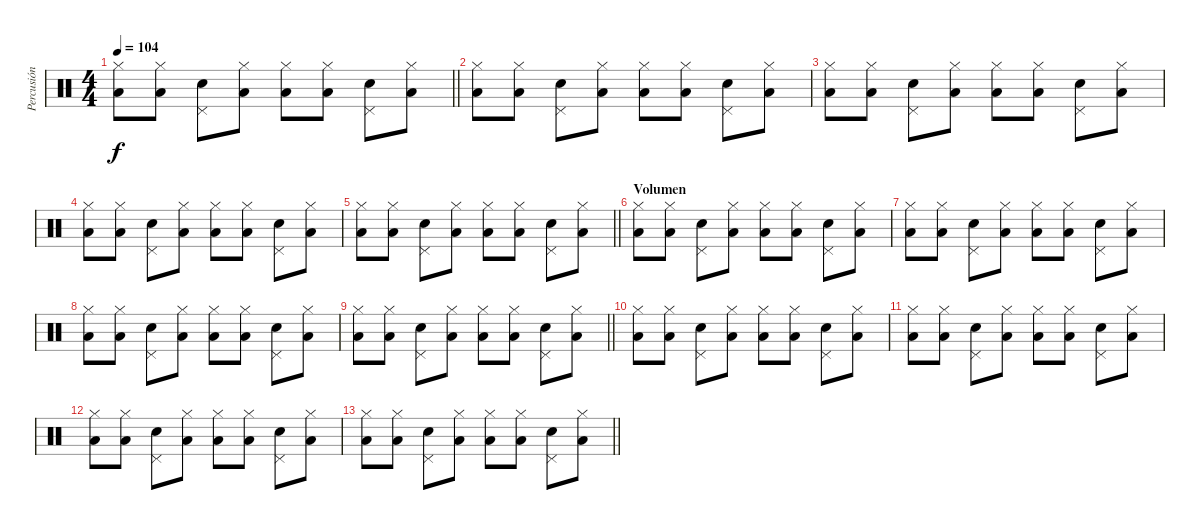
\track ("Percusión" "Percusión") {instrument percussion}
\staff {score}
\articulation defaults
\ts (4 4)
\tempo 104
\clef neutral
\barLineRight lightlight
\ks c
("Low Floor Tom (hit)" "Hi-Hat (closed)").8{dy f} ("Low Floor Tom (hit)" "Hi-Hat (closed)").8 ("Pedal Hi-Hat (hit)" "Snare (hit) 2").8 ("Low Floor Tom (hit)" "Hi-Hat (closed)").8 ("Low Floor Tom (hit)" "Hi-Hat (closed)").8 ("Low Floor Tom (hit)" "Hi-Hat (closed)").8 ("Pedal Hi-Hat (hit)" "Snare (hit) 2").8 ("Low Floor Tom (hit)" "Hi-Hat (closed)").8 |
("Low Floor Tom (hit)" "Hi-Hat (closed)").8 ("Low Floor Tom (hit)" "Hi-Hat (closed)").8 ("Pedal Hi-Hat (hit)" "Snare (hit) 2").8 ("Low Floor Tom (hit)" "Hi-Hat (closed)").8 ("Low Floor Tom (hit)" "Hi-Hat (closed)").8 ("Low Floor Tom (hit)" "Hi-Hat (closed)").8 ("Pedal Hi-Hat (hit)" "Snare (hit) 2").8 ("Low Floor Tom (hit)" "Hi-Hat (closed)").8 |
("Low Floor Tom (hit)" "Hi-Hat (closed)").8 ("Low Floor Tom (hit)" "Hi-Hat (closed)").8 ("Pedal Hi-Hat (hit)" "Snare (hit) 2").8 ("Low Floor Tom (hit)" "Hi-Hat (closed)").8 ("Low Floor Tom (hit)" "Hi-Hat (closed)").8 ("Low Floor Tom (hit)" "Hi-Hat (closed)").8 ("Pedal Hi-Hat (hit)" "Snare (hit) 2").8 ("Low Floor Tom (hit)" "Hi-Hat (closed)").8 |
("Low Floor Tom (hit)" "Hi-Hat (closed)").8 ("Low Floor Tom (hit)" "Hi-Hat (closed)").8 ("Pedal Hi-Hat (hit)" "Snare (hit) 2").8 ("Low Floor Tom (hit)" "Hi-Hat (closed)").8 ("Low Floor Tom (hit)" "Hi-Hat (closed)").8 ("Low Floor Tom (hit)" "Hi-Hat (closed)").8 ("Pedal Hi-Hat (hit)" "Snare (hit) 2").8 ("Low Floor Tom (hit)" "Hi-Hat (closed)").8 |
\barLineRight lightlight
("Low Floor Tom (hit)" "Hi-Hat (closed)").8 ("Low Floor Tom (hit)" "Hi-Hat (closed)").8 ("Pedal Hi-Hat (hit)" "Snare (hit) 2").8 ("Low Floor Tom (hit)" "Hi-Hat (closed)").8 ("Low Floor Tom (hit)" "Hi-Hat (closed)").8 ("Low Floor Tom (hit)" "Hi-Hat (closed)").8 ("Pedal Hi-Hat (hit)" "Snare (hit) 2").8 ("Low Floor Tom (hit)" "Hi-Hat (closed)").8 |
\section ("" "Volumen")
("Low Floor Tom (hit)" "Hi-Hat (closed)").8 ("Low Floor Tom (hit)" "Hi-Hat (closed)").8 ("Pedal Hi-Hat (hit)" "Snare (hit) 2").8 ("Low Floor Tom (hit)" "Hi-Hat (closed)").8 ("Low Floor Tom (hit)" "Hi-Hat (closed)").8 ("Low Floor Tom (hit)" "Hi-Hat (closed)").8 ("Pedal Hi-Hat (hit)" "Snare (hit) 2").8 ("Low Floor Tom (hit)" "Hi-Hat (closed)").8 |
("Low Floor Tom (hit)" "Hi-Hat (closed)").8 ("Low Floor Tom (hit)" "Hi-Hat (closed)").8 ("Pedal Hi-Hat (hit)" "Snare (hit) 2").8 ("Low Floor Tom (hit)" "Hi-Hat (closed)").8 ("Low Floor Tom (hit)" "Hi-Hat (closed)").8 ("Low Floor Tom (hit)" "Hi-Hat (closed)").8 ("Pedal Hi-Hat (hit)" "Snare (hit) 2").8 ("Low Floor Tom (hit)" "Hi-Hat (closed)").8 |
("Low Floor Tom (hit)" "Hi-Hat (closed)").8 ("Low Floor Tom (hit)" "Hi-Hat (closed)").8 ("Pedal Hi-Hat (hit)" "Snare (hit) 2").8 ("Low Floor Tom (hit)" "Hi-Hat (closed)").8 ("Low Floor Tom (hit)" "Hi-Hat (closed)").8 ("Low Floor Tom (hit)" "Hi-Hat (closed)").8 ("Pedal Hi-Hat (hit)" "Snare (hit) 2").8 ("Low Floor Tom (hit)" "Hi-Hat (closed)").8 |
\barLineRight lightlight
("Low Floor Tom (hit)" "Hi-Hat (closed)").8 ("Low Floor Tom (hit)" "Hi-Hat (closed)").8 ("Pedal Hi-Hat (hit)" "Snare (hit) 2").8 ("Low Floor Tom (hit)" "Hi-Hat (closed)").8 ("Low Floor Tom (hit)" "Hi-Hat (closed)").8 ("Low Floor Tom (hit)" "Hi-Hat (closed)").8 ("Pedal Hi-Hat (hit)" "Snare (hit) 2").8 ("Low Floor Tom (hit)" "Hi-Hat (closed)").8 |
("Low Floor Tom (hit)" "Hi-Hat (closed)").8 ("Low Floor Tom (hit)" "Hi-Hat (closed)").8 ("Pedal Hi-Hat (hit)" "Snare (hit) 2").8 ("Low Floor Tom (hit)" "Hi-Hat (closed)").8 ("Low Floor Tom (hit)" "Hi-Hat (closed)").8 ("Low Floor Tom (hit)" "Hi-Hat (closed)").8 ("Pedal Hi-Hat (hit)" "Snare (hit) 2").8 ("Low Floor Tom (hit)" "Hi-Hat (closed)").8 |
("Low Floor Tom (hit)" "Hi-Hat (closed)").8 ("Low Floor Tom (hit)" "Hi-Hat (closed)").8 ("Pedal Hi-Hat (hit)" "Snare (hit) 2").8 ("Low Floor Tom (hit)" "Hi-Hat (closed)").8 ("Low Floor Tom (hit)" "Hi-Hat (closed)").8 ("Low Floor Tom (hit)" "Hi-Hat (closed)").8 ("Pedal Hi-Hat (hit)" "Snare (hit) 2").8 ("Low Floor Tom (hit)" "Hi-Hat (closed)").8 |
("Low Floor Tom (hit)" "Hi-Hat (closed)").8 ("Low Floor Tom (hit)" "Hi-Hat (closed)").8 ("Pedal Hi-Hat (hit)" "Snare (hit) 2").8 ("Low Floor Tom (hit)" "Hi-Hat (closed)").8 ("Low Floor Tom (hit)" "Hi-Hat (closed)").8 ("Low Floor Tom (hit)" "Hi-Hat (closed)").8 ("Pedal Hi-Hat (hit)" "Snare (hit) 2").8 ("Low Floor Tom (hit)" "Hi-Hat (closed)").8 |
\barLineRight lightlight
("Low Floor Tom (hit)" "Hi-Hat (closed)").8 ("Low Floor Tom (hit)" "Hi-Hat (closed)").8 ("Pedal Hi-Hat (hit)" "Snare (hit) 2").8 ("Low Floor Tom (hit)" "Hi-Hat (closed)").8 ("Low Floor Tom (hit)" "Hi-Hat (closed)").8 ("Low Floor Tom (hit)" "Hi-Hat (closed)").8 ("Pedal Hi-Hat (hit)" "Snare (hit) 2").8 ("Low Floor Tom (hit)" "Hi-Hat (closed)").8
